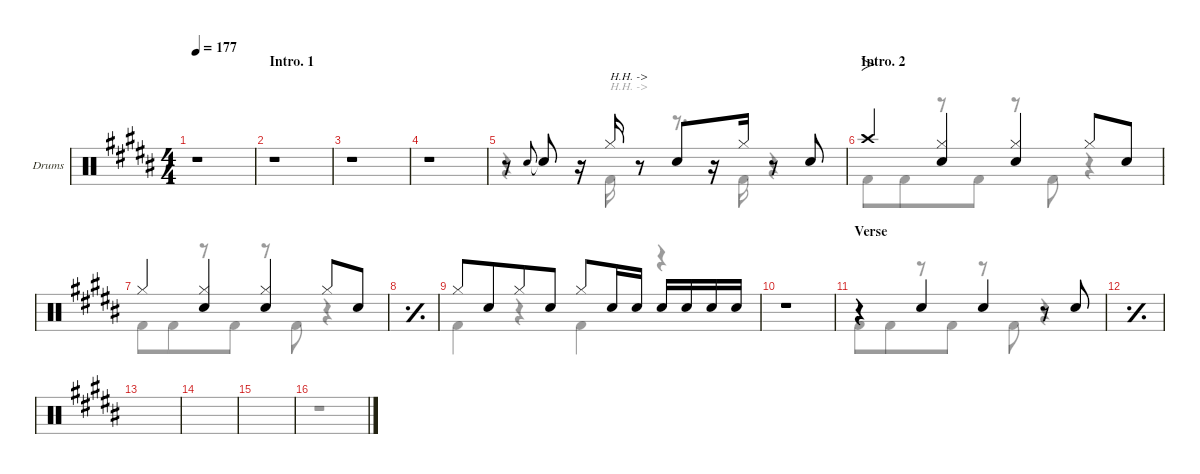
\defaultSystemsLayout 4
\hideDynamics
\bracketExtendMode nobrackets
\firstSystemTrackNameOrientation horizontal
\track ("Drums" "Drums") {defaultSystemsLayout 4 instrument percussion}
\staff {score}
\articulation defaults
\voice
\ts (4 4)
\beaming (8 4 4)
\tempo 177
\clef neutral
\ks g#minor
r.1{dy f beam Up} |
\section ("" "Intro. 1")
\scale
0.265908 r.1{beam Up} |
\scale
0.244697 r.1{beam Up} |
\scale
0.244697 r.1{beam Up} |
\scale
0.244698 r.8{beam Up beam split} "Snare (hit) 2"{acc forcenatural}.8{gr onbeat beam Up beam split} "Snare (hit) 2"{t acc forcenatural}.8{beam Up beam split} r.16{beam Up beam split} "Hi-Hat (closed)"{acc forcenatural}.16{txt "H.H. ->" beam Up} r.8{beam Up} "Snare (hit) 2"{acc forcenatural}.8{beam Up beam merge} r.16{beam Up beam merge} "Hi-Hat (closed)"{acc forcenatural}.16{beam Up beam split} r.8{beam Up beam split} "Snare (hit) 2"{acc forcenatural}.8{beam Up} |
\section ("" "Intro. 2")
\scale
0.265908 "Crash high (hit)"{acc forcenatural}.4{fo beam Up} ("Hi-Hat (closed)"{acc forcenatural} "Snare (hit) 2"{acc forcenatural}).4{beam Up} ("Hi-Hat (closed)"{acc forcenatural} "Snare (hit) 2"{acc forcenatural}).4{beam Up} "Hi-Hat (closed)"{acc forcenatural}.8{beam Up} "Snare (hit) 2"{acc forcenatural}.8{beam Up} |
\scale
0.244697 "Hi-Hat (closed)"{acc forcenatural}.4{beam Up} ("Hi-Hat (closed)"{acc forcenatural} "Snare (hit) 2"{acc forcenatural}).4{beam Up} ("Hi-Hat (closed)"{acc forcenatural} "Snare (hit) 2"{acc forcenatural}).4{beam Up} "Hi-Hat (closed)"{acc forcenatural}.8{beam Up} "Snare (hit) 2"{acc forcenatural}.8{beam Up} |
\simile simple
\scale
0.244697 |
\simile none
\scale
0.244697 "Hi-Hat (closed)"{acc forcenatural}.8{beam Up} "Snare (hit) 2"{acc forcenatural}.8{beam Up} "Hi-Hat (closed)"{acc forcenatural}.8{beam Up} "Snare (hit) 2"{acc forcenatural}.8{beam Up} "Hi-Hat (closed)"{acc forcenatural}.8{beam Up} "Snare (hit) 2"{acc forcenatural}.16{beam Up} "Snare (hit) 2"{acc forcenatural}.16{dy mf beam Up beam split} "Snare (hit) 2"{acc forcenatural}.16{dy f beam Up} "Snare (hit) 2"{acc forcenatural}.16{dy mf beam Up} "Snare (hit) 2"{acc forcenatural}.16{dy f beam Up} "Snare (hit) 2"{acc forcenatural}.16{dy mf beam Up} |
r.1{beam Down} |
\section ("" "Verse")
\scale
0.265908 r.4{beam Up} "Snare (hit) 2"{acc forcenatural}.4{dy f beam Up} "Snare (hit) 2"{acc forcenatural}.4{beam Up} r.8{beam Up} "Snare (hit) 2"{acc forcenatural}.8{beam Up} |
\simile simple
\scale
0.244697 |
\scale
0.244697 |
\scale
0.244697 |
\scale
0.265908 |
\scale
0.244697
\voice
\clef neutral
\ottava regular
\simile none
\ks g#minor
r.1{dy f beam Down} |
\scale
0.265908 r.1{beam Down} |
\scale
0.244697 r.1{beam Down} |
\scale
0.244697 r.1{beam Down} |
\scale
0.244698 r.4{beam Down} r.16{beam Down} "Kick (hit) 2"{acc forcenatural}.16{txt "H.H. ->" beam Down} r.8{beam Down} r.8{d beam Down} "Kick (hit) 2"{acc forcenatural}.16{beam Down} r.4{beam Down} |
\scale
0.265908 "Kick (hit) 2"{acc forcenatural}.8{beam Down} "Kick (hit) 2"{acc forcenatural}.8{beam Down} r.8{beam Down} "Kick (hit) 2"{acc forcenatural}.8{beam Down} r.8{beam Down} "Kick (hit) 2"{acc forcenatural}.8{beam Down} r.4{beam Down} |
\scale
0.244697 "Kick (hit) 2"{acc forcenatural}.8{beam Down} "Kick (hit) 2"{acc forcenatural}.8{beam Down} r.8{beam Down} "Kick (hit) 2"{acc forcenatural}.8{beam Down} r.8{beam Down} "Kick (hit) 2"{acc forcenatural}.8{beam Down} r.4{beam Down} |
\simile simple
\scale
0.244697 |
\simile none
\scale
0.244697 "Kick (hit) 2"{acc forcenatural}.4{beam Down} r.4{beam Down} "Kick (hit) 2"{acc forcenatural}.4{beam Down} r.4{beam Down} |
|
\scale
0.265908 "Kick (hit) 2"{acc forcenatural}.8{beam Down} "Kick (hit) 2"{acc forcenatural}.8{beam Down} r.8{beam Down} "Kick (hit) 2"{acc forcenatural}.8{beam Down} r.8{beam Down} "Kick (hit) 2"{acc forcenatural}.8{beam Down} r.4{beam Down} |
\simile simple
\scale
0.244697 |
\scale
0.244697 |
\scale
0.244697 |
\scale
0.265908 |
\scale
0.244697
